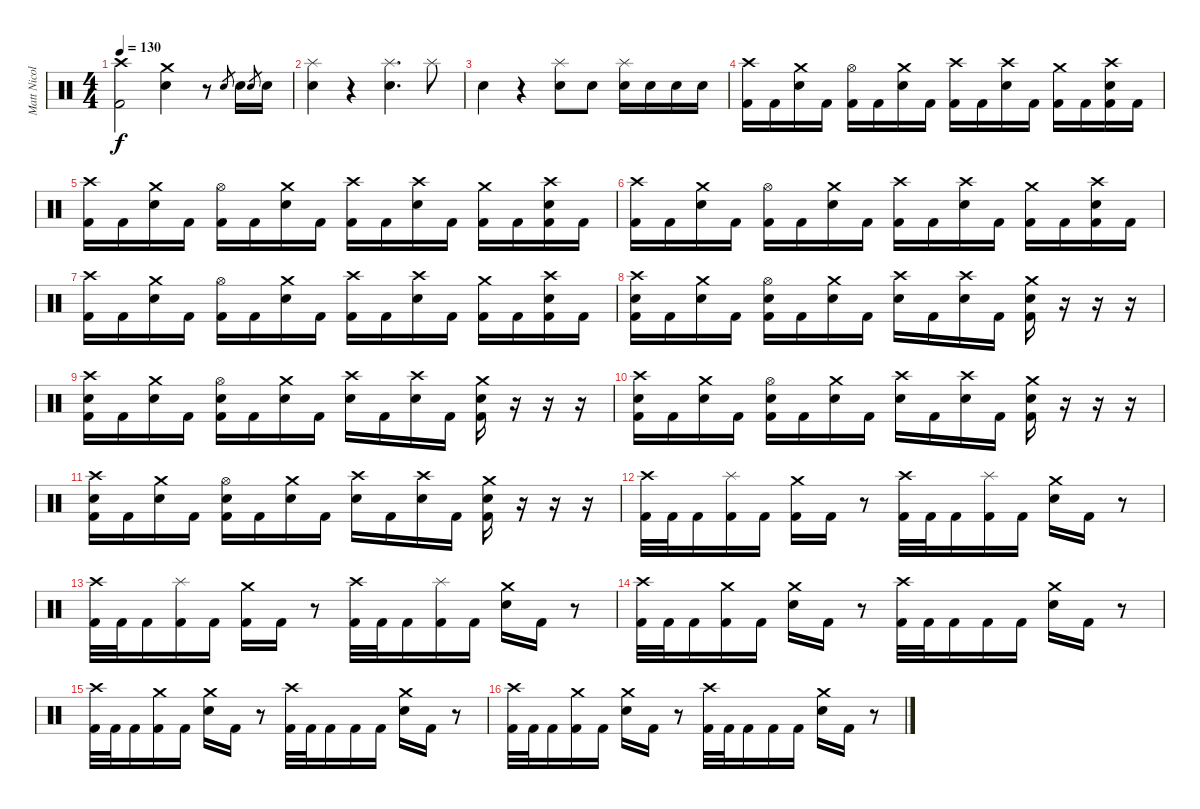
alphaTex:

\track ("Matt Nicols" "Matt Nicol") {instrument percussion}
\staff {score}
\articulation defaults
\ts (4 4)
\tempo 130
\clef neutral
\ks c
("Kick (hit) 2" "Crash high (hit)").2{dy f} ("Snare (hit) 2" "Crash medium (hit)").4 r.8 "Electric Snare (hit)".8{gr} "Snare (hit) 2".16 "Electric Snare (hit)".8{gr} "Snare (hit) 2".16 |
("Splash (hit)" "Snare (hit) 2").4 r.4 ("Splash (hit)" "Snare (hit) 2").4{d} "Splash (hit)".8 |
"Snare (hit) 2".4 r.4 ("Splash (hit)" "Snare (hit) 2").8 "Snare (hit) 2".8 ("Splash (hit)" "Snare (hit) 2").16 "Snare (hit) 2".16 "Snare (hit) 2".16 "Snare (hit) 2".16 |
("Crash high (hit)" "Kick (hit) 2").16 "Kick (hit) 2".16 ("Crash medium (hit)" "Snare (hit) 2").16 "Kick (hit) 2".16 ("Hi-Hat (open)" "Kick (hit) 2").16 "Kick (hit) 2".16 ("Crash medium (hit)" "Snare (hit) 2").16 "Kick (hit) 2".16 ("Crash high (hit)" "Kick (hit) 2").16 "Kick (hit) 2".16 ("Crash high (hit)" "Snare (hit) 2").16 "Kick (hit) 2".16 ("Crash medium (hit)" "Kick (hit) 2").16 "Kick (hit) 2".16 ("Crash high (hit)" "Snare (hit) 2" "Kick (hit) 2").16 "Kick (hit) 2".16 |
("Crash high (hit)" "Kick (hit) 2").16 "Kick (hit) 2".16 ("Crash medium (hit)" "Snare (hit) 2").16 "Kick (hit) 2".16 ("Hi-Hat (open)" "Kick (hit) 2").16 "Kick (hit) 2".16 ("Crash medium (hit)" "Snare (hit) 2").16 "Kick (hit) 2".16 ("Crash high (hit)" "Kick (hit) 2").16 "Kick (hit) 2".16 ("Crash high (hit)" "Snare (hit) 2").16 "Kick (hit) 2".16 ("Crash medium (hit)" "Kick (hit) 2").16 "Kick (hit) 2".16 ("Crash high (hit)" "Snare (hit) 2" "Kick (hit) 2").16 "Kick (hit) 2".16 |
("Crash high (hit)" "Kick (hit) 2").16 "Kick (hit) 2".16 ("Crash medium (hit)" "Snare (hit) 2").16 "Kick (hit) 2".16 ("Hi-Hat (open)" "Kick (hit) 2").16 "Kick (hit) 2".16 ("Crash medium (hit)" "Snare (hit) 2").16 "Kick (hit) 2".16 ("Crash high (hit)" "Kick (hit) 2").16 "Kick (hit) 2".16 ("Crash high (hit)" "Snare (hit) 2").16 "Kick (hit) 2".16 ("Crash medium (hit)" "Kick (hit) 2").16 "Kick (hit) 2".16 ("Crash high (hit)" "Snare (hit) 2" "Kick (hit) 2").16 "Kick (hit) 2".16 |
("Crash high (hit)" "Kick (hit) 2").16 "Kick (hit) 2".16 ("Crash medium (hit)" "Snare (hit) 2").16 "Kick (hit) 2".16 ("Hi-Hat (open)" "Kick (hit) 2").16 "Kick (hit) 2".16 ("Crash medium (hit)" "Snare (hit) 2").16 "Kick (hit) 2".16 ("Crash high (hit)" "Kick (hit) 2").16 "Kick (hit) 2".16 ("Crash high (hit)" "Snare (hit) 2").16 "Kick (hit) 2".16 ("Crash medium (hit)" "Kick (hit) 2").16 "Kick (hit) 2".16 ("Crash high (hit)" "Snare (hit) 2" "Kick (hit) 2").16 "Kick (hit) 2".16 |
("Crash high (hit)" "Snare (hit) 2" "Kick (hit) 2").16 "Kick (hit) 2".16 ("Crash medium (hit)" "Snare (hit) 2").16 "Kick (hit) 2".16 ("Hi-Hat (open)" "Snare (hit) 2" "Kick (hit) 2").16 "Kick (hit) 2".16 ("Crash medium (hit)" "Snare (hit) 2").16 "Kick (hit) 2".16 ("Crash high (hit)" "Snare (hit) 2").16 "Kick (hit) 2".16 ("Crash high (hit)" "Snare (hit) 2").16 "Kick (hit) 2".16 ("Crash medium (hit)" "Snare (hit) 2" "Kick (hit) 2").16 r.16 r.16 r.16 |
("Crash high (hit)" "Snare (hit) 2" "Kick (hit) 2").16 "Kick (hit) 2".16 ("Crash medium (hit)" "Snare (hit) 2").16 "Kick (hit) 2".16 ("Hi-Hat (open)" "Snare (hit) 2" "Kick (hit) 2").16 "Kick (hit) 2".16 ("Crash medium (hit)" "Snare (hit) 2").16 "Kick (hit) 2".16 ("Crash high (hit)" "Snare (hit) 2").16 "Kick (hit) 2".16 ("Crash high (hit)" "Snare (hit) 2").16 "Kick (hit) 2".16 ("Crash medium (hit)" "Snare (hit) 2" "Kick (hit) 2").16 r.16 r.16 r.16 |
("Crash high (hit)" "Snare (hit) 2" "Kick (hit) 2").16 "Kick (hit) 2".16 ("Crash medium (hit)" "Snare (hit) 2").16 "Kick (hit) 2".16 ("Hi-Hat (open)" "Snare (hit) 2" "Kick (hit) 2").16 "Kick (hit) 2".16 ("Crash medium (hit)" "Snare (hit) 2").16 "Kick (hit) 2".16 ("Crash high (hit)" "Snare (hit) 2").16 "Kick (hit) 2".16 ("Crash high (hit)" "Snare (hit) 2").16 "Kick (hit) 2".16 ("Crash medium (hit)" "Snare (hit) 2" "Kick (hit) 2").16 r.16 r.16 r.16 |
("Crash high (hit)" "Snare (hit) 2" "Kick (hit) 2").16 "Kick (hit) 2".16 ("Crash medium (hit)" "Snare (hit) 2").16 "Kick (hit) 2".16 ("Hi-Hat (open)" "Snare (hit) 2" "Kick (hit) 2").16 "Kick (hit) 2".16 ("Crash medium (hit)" "Snare (hit) 2").16 "Kick (hit) 2".16 ("Crash high (hit)" "Snare (hit) 2").16 "Kick (hit) 2".16 ("Crash high (hit)" "Snare (hit) 2").16 "Kick (hit) 2".16 ("Crash medium (hit)" "Snare (hit) 2" "Kick (hit) 2").16 r.16 r.16 r.16 |
("Crash high (hit)" "Kick (hit) 2").32 "Kick (hit) 2".32 "Kick (hit) 2".16 ("Splash (hit)" "Kick (hit) 2").16 "Kick (hit) 2".16 ("Crash medium (hit)" "Kick (hit) 2").16 "Kick (hit) 2".16 r.8 ("Crash high (hit)" "Kick (hit) 2").32 "Kick (hit) 2".32 "Kick (hit) 2".16 ("Splash (hit)" "Kick (hit) 2").16 "Kick (hit) 2".16 ("Crash medium (hit)" "Snare (hit) 2").16 "Kick (hit) 2".16 r.8 |
("Crash high (hit)" "Kick (hit) 2").32 "Kick (hit) 2".32 "Kick (hit) 2".16 ("Splash (hit)" "Kick (hit) 2").16 "Kick (hit) 2".16 ("Crash medium (hit)" "Kick (hit) 2").16 "Kick (hit) 2".16 r.8 ("Crash high (hit)" "Kick (hit) 2").32 "Kick (hit) 2".32 "Kick (hit) 2".16 ("Splash (hit)" "Kick (hit) 2").16 "Kick (hit) 2".16 ("Crash medium (hit)" "Snare (hit) 2").16 "Kick (hit) 2".16 r.8 |
("Crash high (hit)" "Kick (hit) 2").32 "Kick (hit) 2".32 "Kick (hit) 2".16 ("Crash medium (hit)" "Kick (hit) 2").16 "Kick (hit) 2".16 ("Snare (hit) 2" "Crash medium (hit)").16 "Kick (hit) 2".16 r.8 ("Crash high (hit)" "Kick (hit) 2").32 "Kick (hit) 2".32 "Kick (hit) 2".16 "Kick (hit) 2".16 "Kick (hit) 2".16 ("Crash medium (hit)" "Snare (hit) 2").16 "Kick (hit) 2".16 r.8 |
("Crash high (hit)" "Kick (hit) 2").32 "Kick (hit) 2".32 "Kick (hit) 2".16 ("Crash medium (hit)" "Kick (hit) 2").16 "Kick (hit) 2".16 ("Snare (hit) 2" "Crash medium (hit)").16 "Kick (hit) 2".16 r.8 ("Crash high (hit)" "Kick (hit) 2").32 "Kick (hit) 2".32 "Kick (hit) 2".16 "Kick (hit) 2".16 "Kick (hit) 2".16 ("Crash medium (hit)" "Snare (hit) 2").16 "Kick (hit) 2".16 r.8 |
("Crash high (hit)" "Kick (hit) 2").32 "Kick (hit) 2".32 "Kick (hit) 2".16 ("Crash medium (hit)" "Kick (hit) 2").16 "Kick (hit) 2".16 ("Snare (hit) 2" "Crash medium (hit)").16 "Kick (hit) 2".16 r.8 ("Crash high (hit)" "Kick (hit) 2").32 "Kick (hit) 2".32 "Kick (hit) 2".16 "Kick (hit) 2".16 "Kick (hit) 2".16 ("Crash medium (hit)" "Snare (hit) 2").16 "Kick (hit) 2".16 r.8
